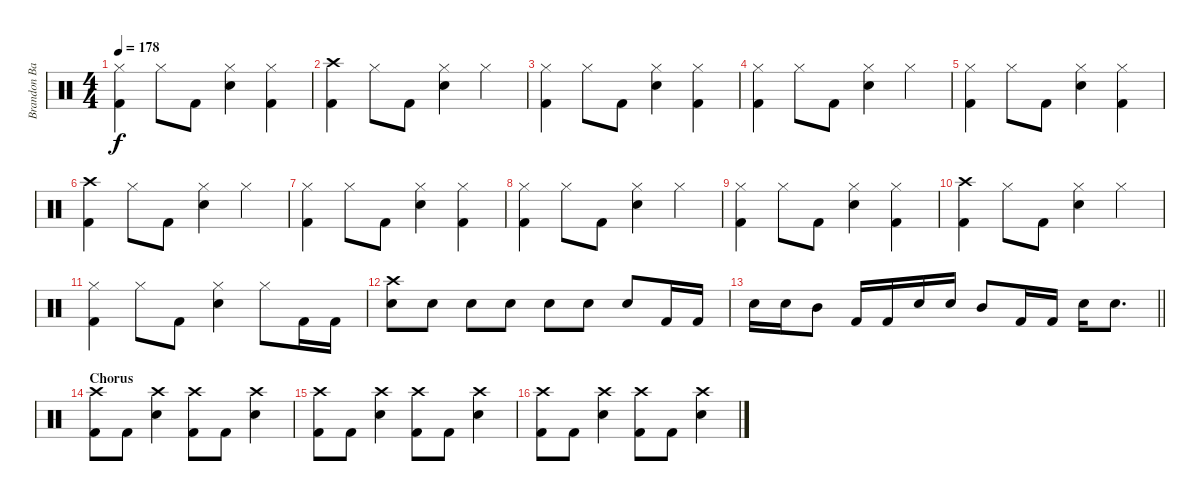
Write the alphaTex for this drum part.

\track ("Brandon Barnes - Drums" "Brandon Ba") {instrument percussion}
\staff {score}
\articulation defaults
\ts (4 4)
\tempo 178
\clef neutral
\ks c
("Hi-Hat (closed)" "Kick (hit) 2").4{dy f} "Hi-Hat (closed)".8 "Kick (hit) 2".8 ("Snare (hit) 2" "Hi-Hat (closed)").4 ("Hi-Hat (closed)" "Kick (hit) 2").4 |
("Crash high (hit)" "Kick (hit) 2").4 "Hi-Hat (closed)".8 "Kick (hit) 2".8 ("Snare (hit) 2" "Hi-Hat (closed)").4 "Hi-Hat (closed)".4 |
("Hi-Hat (closed)" "Kick (hit) 2").4 "Hi-Hat (closed)".8 "Kick (hit) 2".8 ("Snare (hit) 2" "Hi-Hat (closed)").4 ("Hi-Hat (closed)" "Kick (hit) 2").4 |
("Hi-Hat (closed)" "Kick (hit) 2").4 "Hi-Hat (closed)".8 "Kick (hit) 2".8 ("Snare (hit) 2" "Hi-Hat (closed)").4 "Hi-Hat (closed)".4 |
("Hi-Hat (closed)" "Kick (hit) 2").4 "Hi-Hat (closed)".8 "Kick (hit) 2".8 ("Snare (hit) 2" "Hi-Hat (closed)").4 ("Hi-Hat (closed)" "Kick (hit) 2").4 |
("Crash high (hit)" "Kick (hit) 2").4 "Hi-Hat (closed)".8 "Kick (hit) 2".8 ("Snare (hit) 2" "Hi-Hat (closed)").4 "Hi-Hat (closed)".4 |
("Hi-Hat (closed)" "Kick (hit) 2").4 "Hi-Hat (closed)".8 "Kick (hit) 2".8 ("Snare (hit) 2" "Hi-Hat (closed)").4 ("Hi-Hat (closed)" "Kick (hit) 2").4 |
("Hi-Hat (closed)" "Kick (hit) 2").4 "Hi-Hat (closed)".8 "Kick (hit) 2".8 ("Snare (hit) 2" "Hi-Hat (closed)").4 "Hi-Hat (closed)".4 |
("Hi-Hat (closed)" "Kick (hit) 2").4 "Hi-Hat (closed)".8 "Kick (hit) 2".8 ("Snare (hit) 2" "Hi-Hat (closed)").4 ("Hi-Hat (closed)" "Kick (hit) 2").4 |
("Crash high (hit)" "Kick (hit) 2").4 "Hi-Hat (closed)".8 "Kick (hit) 2".8 ("Snare (hit) 2" "Hi-Hat (closed)").4 "Hi-Hat (closed)".4 |
("Hi-Hat (closed)" "Kick (hit) 2").4 "Hi-Hat (closed)".8 "Kick (hit) 2".8 ("Snare (hit) 2" "Hi-Hat (closed)").4 "Hi-Hat (closed)".8 "Kick (hit) 2".16 "Kick (hit) 2".16 |
("Crash high (hit)" "Snare (hit) 2").8 "Snare (hit) 2".8 "Snare (hit) 2".8 "Snare (hit) 2".8 "Snare (hit) 2".8 "Snare (hit) 2".8 "Snare (hit) 2".8 "Kick (hit) 2".16 "Kick (hit) 2".16 |
\barLineRight lightlight "Snare (hit) 2".16 "Snare (hit) 2".16 "Mid Tom (hit)".8 "Kick (hit) 2".16 "Kick (hit) 2".16 "Snare (hit) 2".16 "Snare (hit) 2".16 "Mid Tom (hit)".8 "Kick (hit) 2".16 "Kick (hit) 2".16 "Snare (hit) 2".16 "Snare (hit) 2".8{d}
|
\section ("" "Chorus")
("Crash high (hit)" "Kick (hit) 2").8 "Kick (hit) 2".8 ("Snare (hit) 2" "Crash high (hit)").4 ("Crash high (hit)" "Kick (hit) 2").8 "Kick (hit) 2".8 ("Snare (hit) 2" "Crash high (hit)").4 |
("Crash high (hit)" "Kick (hit) 2").8 "Kick (hit) 2".8 ("Snare (hit) 2" "Crash high (hit)").4 ("Crash high (hit)" "Kick (hit) 2").8 "Kick (hit) 2".8 ("Snare (hit) 2" "Crash high (hit)").4 |
("Crash high (hit)" "Kick (hit) 2").8 "Kick (hit) 2".8 ("Snare (hit) 2" "Crash high (hit)").4 ("Crash high (hit)" "Kick (hit) 2").8 "Kick (hit) 2".8 ("Snare (hit) 2" "Crash high (hit)").4
